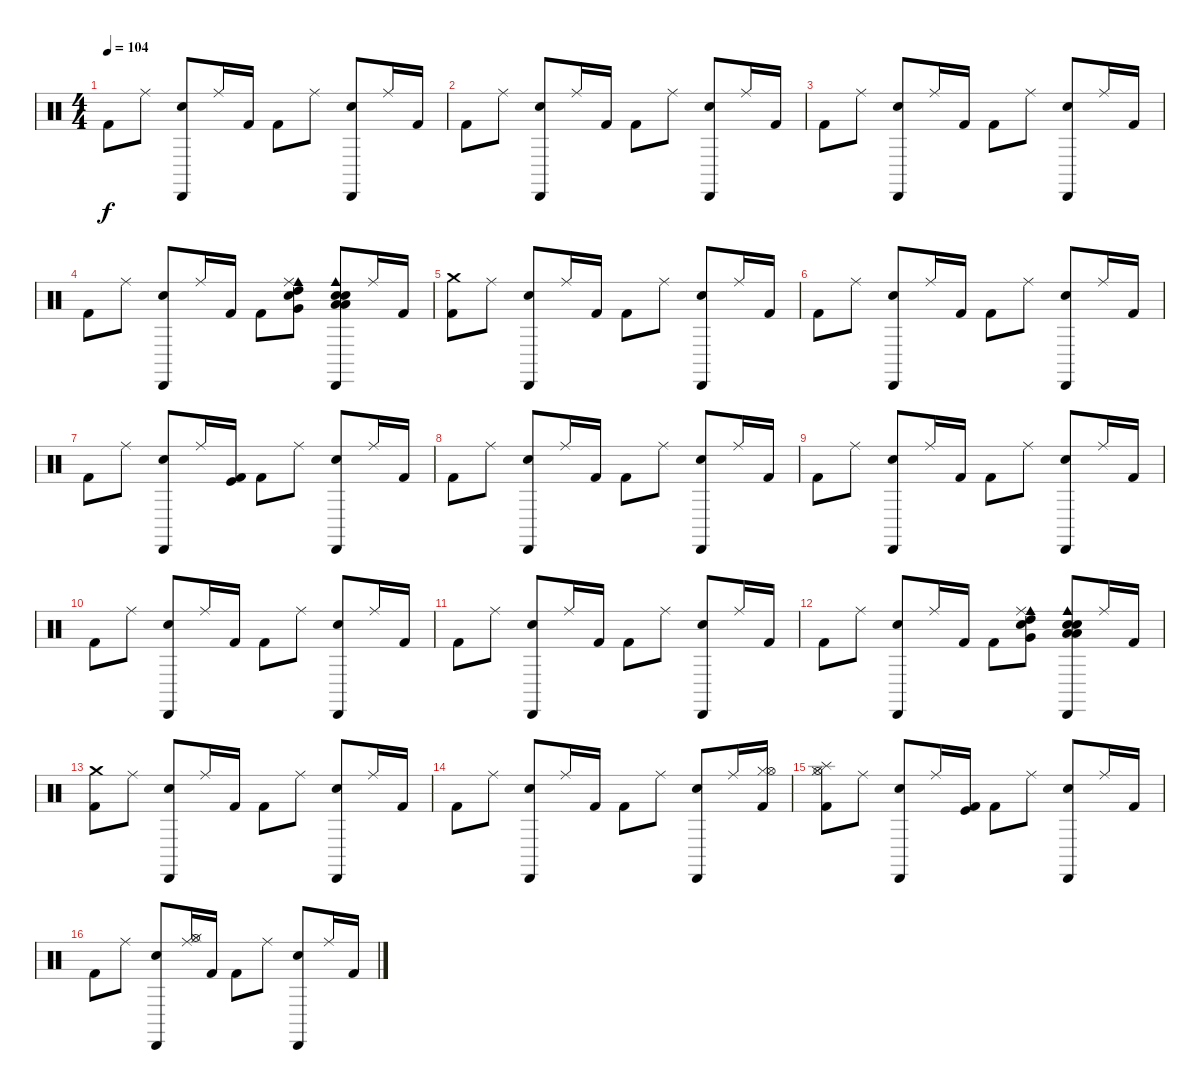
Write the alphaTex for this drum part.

\track "" {instrument percussion}
\staff {score}
\articulation defaults
\ts (4 4)
\tempo 104
\clef neutral
\ks c "Kick (hit) 2".8{dy f} "Ride (middle)".8
("Cabasa (hit)" "Hand Clap (hit)").8 "Ride (middle)".16 "Kick (hit) 2".16 "Kick (hit) 2".8 "Ride (middle)".8 ("Cabasa (hit)" "Hand Clap (hit)").8 "Ride (middle)".16 "Kick (hit) 2".16 |
"Kick (hit) 2".8 "Ride (middle)".8 ("Cabasa (hit)" "Hand Clap (hit)").8 "Ride (middle)".16 "Kick (hit) 2".16 "Kick (hit) 2".8 "Ride (middle)".8 ("Cabasa (hit)" "Hand Clap (hit)").8 "Ride (middle)".16 "Kick (hit) 2".16 |
"Kick (hit) 2".8 "Ride (middle)".8 ("Cabasa (hit)" "Hand Clap (hit)").8 "Ride (middle)".16 "Kick (hit) 2".16 "Kick (hit) 2".8 "Ride (middle)".8 ("Cabasa (hit)" "Hand Clap (hit)").8 "Ride (middle)".16 "Kick (hit) 2".16 |
"Kick (hit) 2".8 "Ride (middle)".8 ("Cabasa (hit)" "Hand Clap (hit)").8 "Ride (middle)".16 "Kick (hit) 2".16 "Kick (hit) 2".8 ("Very Low Tom (hit)" "Electric Snare (hit)" "Cowbell medium (hit)" "High Tom (hit)" "Ride (middle)").8 ("Snare (hit) 2" "Low Floor Tom (hit)" "Low Tom (hit)" "Cowbell medium (hit)" "Cabasa (hit)" "Hand Clap (hit)").8 "Ride (middle)".16 "Kick (hit) 2".16 |
("Crash medium (hit)" "Kick (hit) 2").8 "Ride (middle)".8 ("Hand Clap (hit)" "Cabasa (hit)").8 "Ride (middle)".16 "Kick (hit) 2".16 "Kick (hit) 2".8 "Ride (middle)".8 ("Hand Clap (hit)" "Cabasa (hit)").8 "Ride (middle)".16 "Kick (hit) 2".16 |
"Kick (hit) 2".8 "Ride (middle)".8 ("Hand Clap (hit)" "Cabasa (hit)").8 "Ride (middle)".16 "Kick (hit) 2".16 "Kick (hit) 2".8 "Ride (middle)".8 ("Hand Clap (hit)" "Cabasa (hit)").8 "Ride (middle)".16 "Kick (hit) 2".16 |
"Kick (hit) 2".8 "Ride (middle)".8 ("Hand Clap (hit)" "Cabasa (hit)").8 "Ride (middle)".16 ("Kick (hit) 2" "Kick (hit)").16 "Kick (hit) 2".8 "Ride (middle)".8 ("Hand Clap (hit)" "Cabasa (hit)").8 "Ride (middle)".16 "Kick (hit) 2".16 |
"Kick (hit) 2".8 "Ride (middle)".8 ("Cabasa (hit)" "Hand Clap (hit)").8 "Ride (middle)".16 "Kick (hit) 2".16 "Kick (hit) 2".8 "Ride (middle)".8 ("Cabasa (hit)" "Hand Clap (hit)").8 "Ride (middle)".16 "Kick (hit) 2".16 |
"Kick (hit) 2".8 "Ride (middle)".8 ("Cabasa (hit)" "Hand Clap (hit)").8 "Ride (middle)".16 "Kick (hit) 2".16 "Kick (hit) 2".8 "Ride (middle)".8 ("Cabasa (hit)" "Hand Clap (hit)").8 "Ride (middle)".16 "Kick (hit) 2".16 |
"Kick (hit) 2".8 "Ride (middle)".8 ("Cabasa (hit)" "Hand Clap (hit)").8 "Ride (middle)".16 "Kick (hit) 2".16 "Kick (hit) 2".8 "Ride (middle)".8 ("Cabasa (hit)" "Hand Clap (hit)").8 "Ride (middle)".16 "Kick (hit) 2".16 |
"Kick (hit) 2".8 "Ride (middle)".8 ("Cabasa (hit)" "Hand Clap (hit)").8 "Ride (middle)".16 "Kick (hit) 2".16 "Kick (hit) 2".8 "Ride (middle)".8 ("Cabasa (hit)" "Hand Clap (hit)").8 "Ride (middle)".16 "Kick (hit) 2".16 |
"Kick (hit) 2".8 "Ride (middle)".8 ("Cabasa (hit)" "Hand Clap (hit)").8 "Ride (middle)".16 "Kick (hit) 2".16 "Kick (hit) 2".8 ("Very Low Tom (hit)" "Electric Snare (hit)" "Cowbell medium (hit)" "High Tom (hit)" "Ride (middle)").8 ("Snare (hit) 2" "Low Floor Tom (hit)" "Low Tom (hit)" "Cowbell medium (hit)" "Cabasa (hit)" "Hand Clap (hit)").8 "Ride (middle)".16 "Kick (hit) 2".16 |
("Crash medium (hit)" "Kick (hit) 2").8 "Ride (middle)".8 ("Hand Clap (hit)" "Cabasa (hit)").8 "Ride (middle)".16 "Kick (hit) 2".16 "Kick (hit) 2".8 "Ride (middle)".8 ("Hand Clap (hit)" "Cabasa (hit)").8 "Ride (middle)".16 "Kick (hit) 2".16 |
"Kick (hit) 2".8 "Ride (middle)".8 ("Hand Clap (hit)" "Cabasa (hit)").8 "Ride (middle)".16 "Kick (hit) 2".16 "Kick (hit) 2".8 "Ride (middle)".8 ("Hand Clap (hit)" "Cabasa (hit)").8 "Ride (middle)".16 ("Hi-Hat (closed)" "Hi-Hat (open)" "Kick (hit) 2").16 |
("Splash (hit)" "Hi-Hat (closed)" "Hi-Hat (open)" "Kick (hit) 2").8 "Ride (middle)".8 ("Hand Clap (hit)" "Cabasa (hit)").8 "Ride (middle)".16 ("Kick (hit) 2" "Kick (hit)").16 "Kick (hit) 2".8 "Ride (middle)".8 ("Hand Clap (hit)" "Cabasa (hit)").8 "Ride (middle)".16 "Kick (hit) 2".16 |
"Kick (hit) 2".8 "Ride (middle)".8 ("Cabasa (hit)" "Hand Clap (hit)").8 ("Hi-Hat (closed)" "Hi-Hat (open)" "Ride (middle)").16 "Kick (hit) 2".16 "Kick (hit) 2".8 "Ride (middle)".8 ("Cabasa (hit)" "Hand Clap (hit)").8 "Ride (middle)".16 "Kick (hit) 2".16
